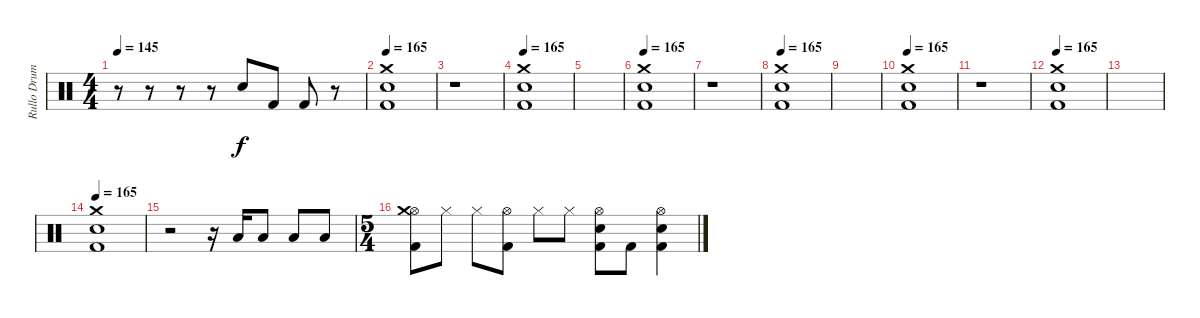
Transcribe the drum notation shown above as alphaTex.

\track ("Rullo Drums" "Rullo Drum") {instrument percussion}
\staff {score}
\articulation defaults
\ts (4 4)
\tempo 145
\clef neutral
\ks c
r.8{dy f} r.8 r.8 r.8 "Snare (hit) 2".8 "Kick (hit) 2".8 "Kick (hit) 2".8 r.8 |
\tempo 165
("Kick (hit) 2" "Snare (hit) 2" "Crash medium (hit)").1 |
r.1 |
\tempo 165
("Kick (hit) 2" "Snare (hit) 2" "Crash medium (hit)").1 |
|
\tempo 165
("Kick (hit) 2" "Snare (hit) 2" "Crash medium (hit)").1 |
r.1 |
\tempo 165
("Kick (hit) 2" "Snare (hit) 2" "Crash medium (hit)").1 |
|
\tempo 165
("Kick (hit) 2" "Snare (hit) 2" "Crash medium (hit)").1 |
r.1 |
\tempo 165
("Kick (hit) 2" "Snare (hit) 2" "Crash medium (hit)").1 |
|
\tempo 165
("Kick (hit) 2" "Snare (hit) 2" "Crash medium (hit)").1 |
r.2 r.16 "Low Tom (hit)".16 "Low Tom (hit)".8 "Low Tom (hit)".8 "Low Tom (hit)".8 |
\ts (5 4)
("Kick (hit) 2" "Hi-Hat (open)" "Crash medium (hit)").8 "Hi-Hat (closed)".8 "Hi-Hat (closed)".8 ("Kick (hit) 2" "Hi-Hat (open)").8 "Hi-Hat (closed)".8 "Hi-Hat (closed)".8 ("Kick (hit) 2" "Snare (hit) 2" "Hi-Hat (open)").8 "Kick (hit) 2".8 ("Kick (hit) 2" "Snare (hit) 2" "Hi-Hat (open)").4
